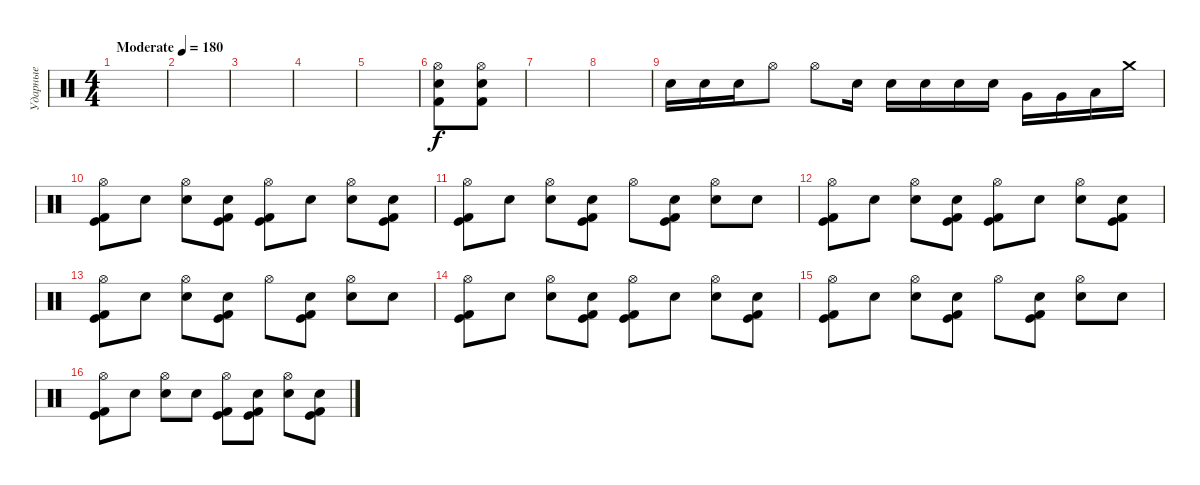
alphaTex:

\track ("Ударные" "Ударные") {instrument percussion}
\staff {score}
\articulation defaults
\ts (4 4)
\tempo (180 "Moderate")
\clef neutral
\ks c
|
|
|
|
|
("Hi-Hat (open)" "Kick (hit) 2" "Electric Snare (hit)").8 ("Hi-Hat (open)" "Kick (hit) 2" "Electric Snare (hit)").8 |
|
|
"Electric Snare (hit)".16 "Electric Snare (hit)".16 "Electric Snare (hit)".16 "Hi-Hat (open)".8 "Hi-Hat (open)".8 "Electric Snare (hit)".16 "Electric Snare (hit)".16 "Electric Snare (hit)".16 "Electric Snare (hit)".16 "Electric Snare (hit)".16 "Very Low Tom (hit)".16 "Very Low Tom (hit)".16 "Low Floor Tom (hit)".16 "Crash medium (hit)".16 |
("Hi-Hat (open)" "Kick (hit)" "Kick (hit) 2").8 "Snare (hit)".8 ("Hi-Hat (open)" "Electric Snare (hit)").8 ("Snare (hit)" "Kick (hit)" "Kick (hit) 2").8 ("Hi-Hat (open)" "Kick (hit) 2" "Kick (hit)").8 "Snare (hit)".8 ("Hi-Hat (open)" "Electric Snare (hit)").8 ("Snare (hit)" "Kick (hit)" "Kick (hit) 2").8 |
("Hi-Hat (open)" "Kick (hit)" "Kick (hit) 2").8 "Snare (hit)".8 ("Hi-Hat (open)" "Electric Snare (hit)").8 ("Snare (hit)" "Kick (hit)" "Kick (hit) 2").8 "Hi-Hat (open)".8 ("Snare (hit)" "Kick (hit) 2" "Kick (hit)").8 ("Hi-Hat (open)" "Electric Snare (hit)").8 "Snare (hit)".8 |
("Hi-Hat (open)" "Kick (hit)" "Kick (hit) 2").8 "Snare (hit)".8 ("Hi-Hat (open)" "Electric Snare (hit)").8 ("Snare (hit)" "Kick (hit)" "Kick (hit) 2").8 ("Hi-Hat (open)" "Kick (hit) 2" "Kick (hit)").8 "Snare (hit)".8 ("Hi-Hat (open)" "Electric Snare (hit)").8 ("Snare (hit)" "Kick (hit)" "Kick (hit) 2").8 |
("Hi-Hat (open)" "Kick (hit)" "Kick (hit) 2").8 "Snare (hit)".8 ("Hi-Hat (open)" "Electric Snare (hit)").8 ("Snare (hit)" "Kick (hit)" "Kick (hit) 2").8 "Hi-Hat (open)".8 ("Snare (hit)" "Kick (hit) 2" "Kick (hit)").8 ("Hi-Hat (open)" "Electric Snare (hit)").8 "Snare (hit)".8 |
("Hi-Hat (open)" "Kick (hit)" "Kick (hit) 2").8 "Snare (hit)".8 ("Hi-Hat (open)" "Electric Snare (hit)").8 ("Snare (hit)" "Kick (hit)" "Kick (hit) 2").8 ("Hi-Hat (open)" "Kick (hit) 2" "Kick (hit)").8 "Snare (hit)".8 ("Hi-Hat (open)" "Electric Snare (hit)").8 ("Snare (hit)" "Kick (hit)" "Kick (hit) 2").8 |
("Hi-Hat (open)" "Kick (hit)" "Kick (hit) 2").8 "Snare (hit)".8 ("Hi-Hat (open)" "Electric Snare (hit)").8 ("Snare (hit)" "Kick (hit)" "Kick (hit) 2").8 "Hi-Hat (open)".8 ("Snare (hit)" "Kick (hit) 2" "Kick (hit)").8 ("Hi-Hat (open)" "Electric Snare (hit)").8 "Snare (hit)".8 |
("Hi-Hat (open)" "Kick (hit)" "Kick (hit) 2").8 "Snare (hit)".8 ("Hi-Hat (open)" "Electric Snare (hit)").8 "Snare (hit)".8 ("Hi-Hat (open)" "Kick (hit) 2" "Kick (hit)").8 ("Snare (hit)" "Kick (hit)" "Kick (hit) 2").8 ("Hi-Hat (open)" "Electric Snare (hit)").8 ("Snare (hit)" "Kick (hit)" "Kick (hit) 2").8
